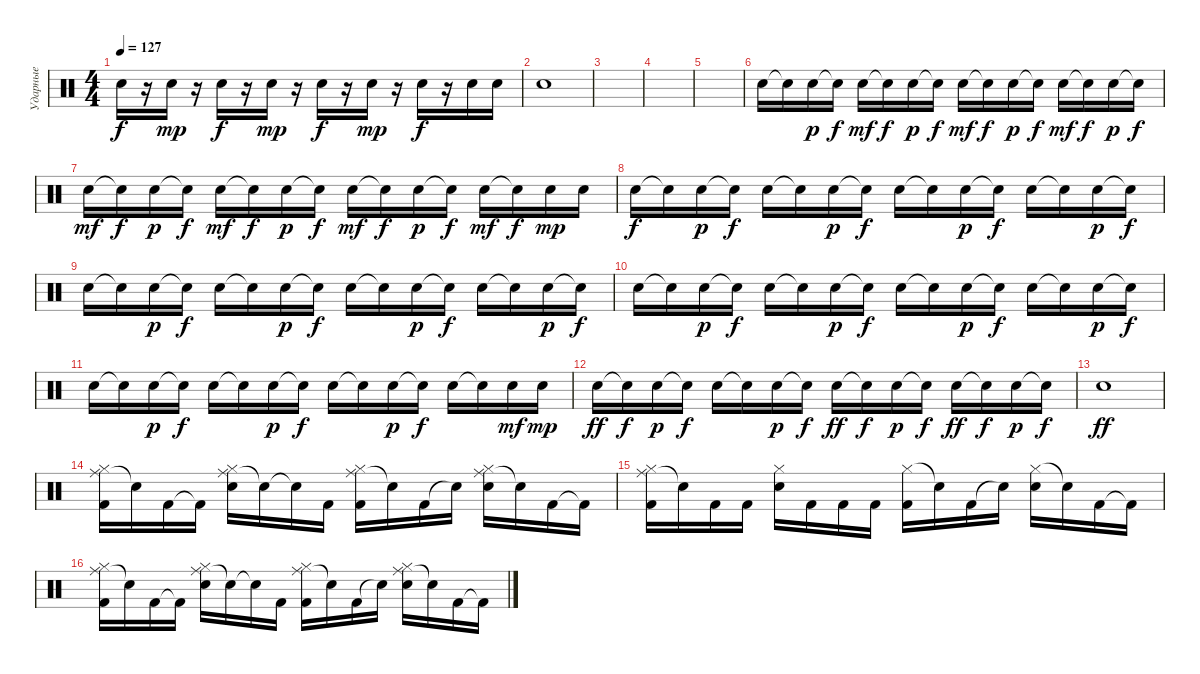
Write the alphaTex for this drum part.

\track ("Ударные" "Ударные") {instrument percussion}
\staff {score}
\articulation defaults
\ts (4 4)
\tempo 127
\clef neutral
\ks c "Electric Snare (hit)".16{dy f}
r.16 "Electric Snare (hit)".16{dy mp} r.16 "Electric Snare (hit)".16{dy f} r.16 "Electric Snare (hit)".16{dy mp} r.16 "Electric Snare (hit)".16{dy f} r.16 "Electric Snare (hit)".16{dy mp} r.16 "Electric Snare (hit)".16{dy f} r.16 "Electric Snare (hit)".16 "Electric Snare (hit)".16 |
"Electric Snare (hit)".1 |
|
|
|
"Electric Snare (hit)".16 "Snare (hit)"{t}.16 "Electric Snare (hit)".16{dy p} "Electric Snare (hit)"{t}.16{dy f} "Electric Snare (hit)".16{dy mf} "Snare (hit)"{t}.16{dy f} "Electric Snare (hit)".16{dy p} "Snare (hit)"{t}.16{dy f} "Electric Snare (hit)".16{dy mf} "Snare (hit)"{t}.16{dy f} "Electric Snare (hit)".16{dy p} "Snare (hit)"{t}.16{dy f} "Electric Snare (hit)".16{dy mf} "Snare (hit)"{t}.16{dy f} "Electric Snare (hit)".16{dy p} "Electric Snare (hit)"{t}.16{dy f} |
"Electric Snare (hit)".16{dy mf} "Snare (hit)"{t}.16{dy f} "Electric Snare (hit)".16{dy p} "Electric Snare (hit)"{t}.16{dy f} "Electric Snare (hit)".16{dy mf} "Snare (hit)"{t}.16{dy f} "Electric Snare (hit)".16{dy p} "Snare (hit)"{t}.16{dy f} "Electric Snare (hit)".16{dy mf} "Snare (hit)"{t}.16{dy f} "Electric Snare (hit)".16{dy p} "Snare (hit)"{t}.16{dy f} "Electric Snare (hit)".16{dy mf} "Snare (hit)"{t}.16{dy f} "Electric Snare (hit)".16{dy mp} "Electric Snare (hit)".16 |
"Electric Snare (hit)".16{dy f} "Snare (hit)"{t}.16 "Electric Snare (hit)".16{dy p} "Electric Snare (hit)"{t}.16{dy f} "Electric Snare (hit)".16 "Snare (hit)"{t}.16 "Electric Snare (hit)".16{dy p} "Snare (hit)"{t}.16{dy f} "Electric Snare (hit)".16 "Snare (hit)"{t}.16 "Electric Snare (hit)".16{dy p} "Snare (hit)"{t}.16{dy f} "Electric Snare (hit)".16 "Snare (hit)"{t}.16 "Electric Snare (hit)".16{dy p} "Electric Snare (hit)"{t}.16{dy f} |
"Electric Snare (hit)".16 "Snare (hit)"{t}.16 "Electric Snare (hit)".16{dy p} "Electric Snare (hit)"{t}.16{dy f} "Electric Snare (hit)".16 "Snare (hit)"{t}.16 "Electric Snare (hit)".16{dy p} "Snare (hit)"{t}.16{dy f} "Electric Snare (hit)".16 "Snare (hit)"{t}.16 "Electric Snare (hit)".16{dy p} "Snare (hit)"{t}.16{dy f} "Electric Snare (hit)".16 "Snare (hit)"{t}.16 "Electric Snare (hit)".16{dy p} "Electric Snare (hit)"{t}.16{dy f} |
"Electric Snare (hit)".16 "Snare (hit)"{t}.16 "Electric Snare (hit)".16{dy p} "Electric Snare (hit)"{t}.16{dy f} "Electric Snare (hit)".16 "Snare (hit)"{t}.16 "Electric Snare (hit)".16{dy p} "Snare (hit)"{t}.16{dy f} "Electric Snare (hit)".16 "Snare (hit)"{t}.16 "Electric Snare (hit)".16{dy p} "Snare (hit)"{t}.16{dy f} "Electric Snare (hit)".16 "Snare (hit)"{t}.16 "Electric Snare (hit)".16{dy p} "Electric Snare (hit)"{t}.16{dy f} |
"Electric Snare (hit)".16 "Snare (hit)"{t}.16 "Electric Snare (hit)".16{dy p} "Electric Snare (hit)"{t}.16{dy f} "Electric Snare (hit)".16 "Snare (hit)"{t}.16 "Electric Snare (hit)".16{dy p} "Snare (hit)"{t}.16{dy f} "Electric Snare (hit)".16 "Snare (hit)"{t}.16 "Electric Snare (hit)".16{dy p} "Snare (hit)"{t}.16{dy f} "Electric Snare (hit)".16 "Snare (hit)"{t}.16 "Electric Snare (hit)".16{dy mf} "Electric Snare (hit)".16{dy mp} |
"Electric Snare (hit)".16{dy ff} "Snare (hit)"{t}.16{dy f} "Electric Snare (hit)".16{dy p} "Electric Snare (hit)"{t}.16{dy f} "Electric Snare (hit)".16 "Snare (hit)"{t}.16 "Electric Snare (hit)".16{dy p} "Snare (hit)"{t}.16{dy f} "Electric Snare (hit)".16{dy ff} "Snare (hit)"{t}.16{dy f} "Electric Snare (hit)".16{dy p} "Snare (hit)"{t}.16{dy f} "Electric Snare (hit)".16{dy ff} "Snare (hit)"{t}.16{dy f} "Electric Snare (hit)".16{dy p} "Electric Snare (hit)"{t}.16{dy f} |
"Electric Snare (hit)".1{dy ff} |
("Ride (middle)" "Hi-Hat (closed)" "Kick (hit) 2").16 "Snare (hit)"{t}.16 "Kick (hit) 2".16 "Kick (hit) 2"{t}.16 ("Ride (middle)" "Hi-Hat (closed)" "Electric Snare (hit)").16 "Snare (hit)"{t}.16 "Snare (hit)"{t}.16 "Kick (hit) 2".16 ("Ride (middle)" "Hi-Hat (closed)" "Kick (hit) 2").16 "Snare (hit)"{t}.16 "Kick (hit) 2".16 "Snare (hit)"{t}.16 ("Ride (middle)" "Hi-Hat (closed)" "Electric Snare (hit)").16 "Snare (hit)"{t}.16 "Kick (hit) 2".16 "Kick (hit) 2"{t}.16 |
("Ride (middle)" "Hi-Hat (closed)" "Kick (hit) 2").16 "Snare (hit)"{t}.16 "Kick (hit) 2".16 "Kick (hit) 2".16 ("Hi-Hat (closed)" "Electric Snare (hit)").16 "Kick (hit) 2".16 "Kick (hit) 2".16 "Kick (hit) 2".16 ("Hi-Hat (closed)" "Kick (hit) 2").16 "Snare (hit)"{t}.16 "Kick (hit) 2".16 "Snare (hit)"{t}.16 ("Hi-Hat (closed)" "Electric Snare (hit)").16 "Snare (hit)"{t}.16 "Kick (hit) 2".16 "Kick (hit) 2"{t}.16 |
("Ride (middle)" "Hi-Hat (closed)" "Kick (hit) 2").16 "Snare (hit)"{t}.16 "Kick (hit) 2".16 "Kick (hit) 2"{t}.16 ("Ride (middle)" "Hi-Hat (closed)" "Electric Snare (hit)").16 "Snare (hit)"{t}.16 "Snare (hit)"{t}.16 "Kick (hit) 2".16 ("Ride (middle)" "Hi-Hat (closed)" "Kick (hit) 2").16 "Snare (hit)"{t}.16 "Kick (hit) 2".16 "Snare (hit)"{t}.16 ("Ride (middle)" "Hi-Hat (closed)" "Electric Snare (hit)").16 "Snare (hit)"{t}.16 "Kick (hit) 2".16 "Kick (hit) 2"{t}.16
